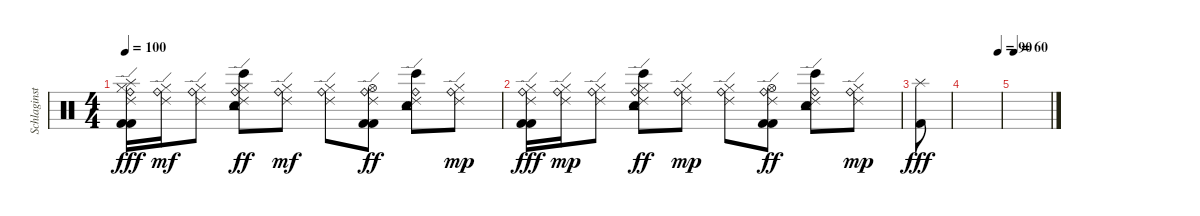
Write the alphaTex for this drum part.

\track ("Schlaginstrumente - Auswahl" "Schlaginst") {instrument percussion}
\staff {score}
\articulation defaults
\ts (4 4)
\tempo 100
\clef neutral
\ks c
("Splash (hit)" "Ride (bell)" "Ride (edge) 2" "Hi-Hat (closed)" "Kick (hit) 2" "Kick (hit) 2").16{dy fff} ("Ride (bell)" "Ride (edge) 2" "Hi-Hat (closed)").16{dy mf} ("Ride (bell)" "Ride (edge) 2" "Hi-Hat (closed)").8 ("Snare (hit) 2" "Ride (bell)" "Ride (edge) 2" "Hi-Hat (closed)" "Bongo High (hit)" "Tambourine (hit)").8{dy ff} ("Ride (bell)" "Ride (edge) 2" "Hi-Hat (closed)").8{dy mf} ("Ride (bell)" "Ride (edge) 2" "Hi-Hat (closed)").8 ("Ride (bell)" "Ride (edge) 2" "Hi-Hat (open)" "Kick (hit) 2" "Kick (hit) 2").8{dy ff} ("Snare (hit) 2" "Ride (bell)" "Ride (edge) 2" "Bongo High (hit)" "Tambourine (hit)").8 ("Ride (bell)" "Ride (edge) 2" "Hi-Hat (closed)").8{dy mp} |
("Ride (bell)" "Ride (edge) 2" "Hi-Hat (closed)" "Kick (hit) 2" "Kick (hit) 2").16{dy fff} ("Ride (bell)" "Ride (edge) 2" "Hi-Hat (closed)").16{dy mp} ("Ride (bell)" "Ride (edge) 2" "Hi-Hat (closed)").8 ("Snare (hit) 2" "Ride (bell)" "Ride (edge) 2" "Hi-Hat (closed)" "Bongo High (hit)" "Tambourine (hit)").8{dy ff} ("Ride (bell)" "Ride (edge) 2" "Hi-Hat (closed)").8{dy mp} ("Ride (bell)" "Ride (edge) 2" "Hi-Hat (closed)").8 ("Ride (bell)" "Ride (edge) 2" "Hi-Hat (open)" "Kick (hit) 2" "Kick (hit) 2").8{dy ff} ("Snare (hit) 2" "Ride (bell)" "Ride (edge) 2" "Bongo High (hit)" "Tambourine (hit)").8 ("Ride (bell)" "Ride (edge) 2" "Hi-Hat (closed)").8{dy mp} |
("Splash (hit)" "Kick (hit) 2").8{dy fff} |
\tempo (90 0.9375)
|
\tempo 60
